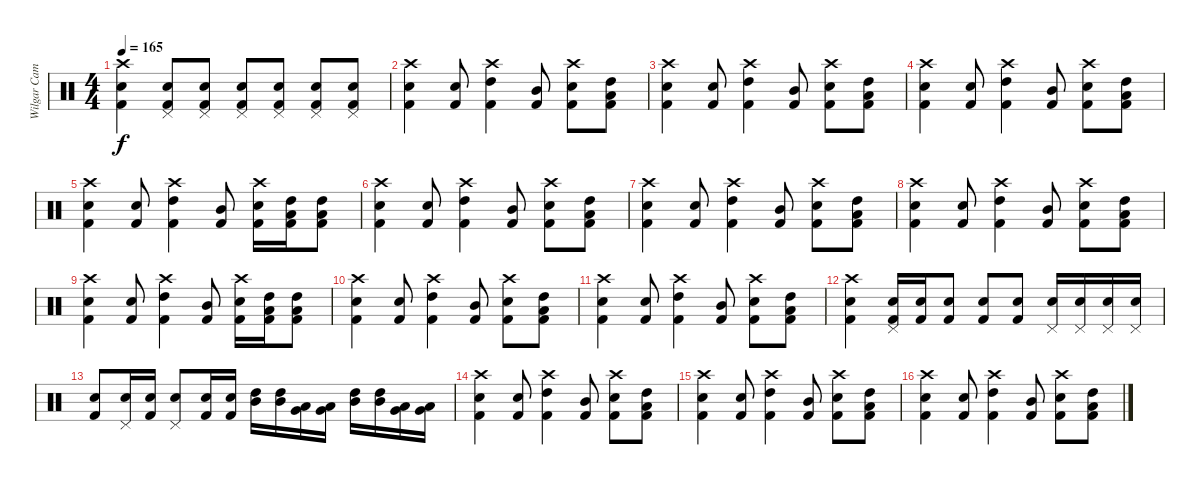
\track ("Wilgar Campbell" "Wilgar Cam") {instrument percussion}
\staff {score}
\articulation defaults
\ts (4 4)
\tempo 165
\clef neutral
\ks c
("Crash high (hit)" "Electric Snare (hit)" "Kick (hit) 2").4{dy f} ("Pedal Hi-Hat (hit)" "Snare (hit) 2" "Kick (hit) 2").8 ("Pedal Hi-Hat (hit)" "Snare (hit) 2" "Kick (hit) 2").8 ("Pedal Hi-Hat (hit)" "Snare (hit) 2" "Kick (hit) 2").8 ("Pedal Hi-Hat (hit)" "Snare (hit) 2" "Kick (hit) 2").8 ("Pedal Hi-Hat (hit)" "Snare (hit) 2" "Kick (hit) 2").8 ("Pedal Hi-Hat (hit)" "Snare (hit) 2" "Kick (hit) 2").8 |
("Crash high (hit)" "Electric Snare (hit)" "Kick (hit) 2").4 ("Snare (hit) 2" "Kick (hit) 2").8 ("Crash high (hit)" "High Tom (hit)" "Kick (hit) 2").4 ("Mid Tom (hit)" "Kick (hit) 2").8 ("Crash high (hit)" "Electric Snare (hit)" "Kick (hit) 2").8 ("High Tom (hit)" "Kick (hit) 2" "Low Tom (hit)").8 |
("Crash high (hit)" "Electric Snare (hit)" "Kick (hit) 2").4 ("Snare (hit) 2" "Kick (hit) 2").8 ("Crash high (hit)" "High Tom (hit)" "Kick (hit) 2").4 ("Mid Tom (hit)" "Kick (hit) 2").8 ("Crash high (hit)" "Electric Snare (hit)" "Kick (hit) 2").8 ("High Tom (hit)" "Kick (hit) 2" "Low Tom (hit)").8 |
("Crash high (hit)" "Electric Snare (hit)" "Kick (hit) 2").4 ("Snare (hit) 2" "Kick (hit) 2").8 ("Crash high (hit)" "High Tom (hit)" "Kick (hit) 2").4 ("Mid Tom (hit)" "Kick (hit) 2").8 ("Crash high (hit)" "Electric Snare (hit)" "Kick (hit) 2").8 ("High Tom (hit)" "Kick (hit) 2" "Low Tom (hit)").8 |
("Crash high (hit)" "Electric Snare (hit)" "Kick (hit) 2").4 ("Snare (hit) 2" "Kick (hit) 2").8 ("Crash high (hit)" "High Tom (hit)" "Kick (hit) 2").4 ("Mid Tom (hit)" "Kick (hit) 2").8 ("Crash high (hit)" "Electric Snare (hit)" "Kick (hit) 2").16 ("High Tom (hit)" "Kick (hit) 2" "Low Tom (hit)").16 ("High Tom (hit)" "Kick (hit) 2" "Low Tom (hit)").8 |
("Crash high (hit)" "Electric Snare (hit)" "Kick (hit) 2").4 ("Snare (hit) 2" "Kick (hit) 2").8 ("Crash high (hit)" "High Tom (hit)" "Kick (hit) 2").4 ("Mid Tom (hit)" "Kick (hit) 2").8 ("Crash high (hit)" "Electric Snare (hit)" "Kick (hit) 2").8 ("High Tom (hit)" "Kick (hit) 2" "Low Tom (hit)").8 |
("Crash high (hit)" "Electric Snare (hit)" "Kick (hit) 2").4 ("Snare (hit) 2" "Kick (hit) 2").8 ("Crash high (hit)" "High Tom (hit)" "Kick (hit) 2").4 ("Mid Tom (hit)" "Kick (hit) 2").8 ("Crash high (hit)" "Electric Snare (hit)" "Kick (hit) 2").8 ("High Tom (hit)" "Kick (hit) 2" "Low Tom (hit)").8 |
("Crash high (hit)" "Electric Snare (hit)" "Kick (hit) 2").4 ("Snare (hit) 2" "Kick (hit) 2").8 ("Crash high (hit)" "High Tom (hit)" "Kick (hit) 2").4 ("Mid Tom (hit)" "Kick (hit) 2").8 ("Crash high (hit)" "Electric Snare (hit)" "Kick (hit) 2").8 ("High Tom (hit)" "Kick (hit) 2" "Low Tom (hit)").8 |
("Crash high (hit)" "Electric Snare (hit)" "Kick (hit) 2").4 ("Snare (hit) 2" "Kick (hit) 2").8 ("Crash high (hit)" "High Tom (hit)" "Kick (hit) 2").4 ("Mid Tom (hit)" "Kick (hit) 2").8 ("Crash high (hit)" "Electric Snare (hit)" "Kick (hit) 2").16 ("High Tom (hit)" "Kick (hit) 2" "Low Tom (hit)").16 ("High Tom (hit)" "Kick (hit) 2" "Low Tom (hit)").8 |
("Crash high (hit)" "Electric Snare (hit)" "Kick (hit) 2").4 ("Snare (hit) 2" "Kick (hit) 2").8 ("Crash high (hit)" "High Tom (hit)" "Kick (hit) 2").4 ("Mid Tom (hit)" "Kick (hit) 2").8 ("Crash high (hit)" "Electric Snare (hit)" "Kick (hit) 2").8 ("High Tom (hit)" "Kick (hit) 2" "Low Tom (hit)").8 |
("Crash high (hit)" "Electric Snare (hit)" "Kick (hit) 2").4 ("Snare (hit) 2" "Kick (hit) 2").8 ("Crash high (hit)" "High Tom (hit)" "Kick (hit) 2").4 ("Mid Tom (hit)" "Kick (hit) 2").8 ("Crash high (hit)" "Electric Snare (hit)" "Kick (hit) 2").8 ("High Tom (hit)" "Kick (hit) 2" "Low Tom (hit)").8 |
("Crash high (hit)" "Kick (hit) 2" "Snare (hit) 2").4 ("Snare (hit) 2" "Kick (hit) 2" "Pedal Hi-Hat (hit)").16 ("Snare (hit) 2" "Kick (hit) 2").16 ("Kick (hit) 2" "Electric Snare (hit)").8 ("Kick (hit) 2" "Snare (hit) 2").8 ("Kick (hit) 2" "Snare (hit) 2").8 ("Snare (hit) 2" "Pedal Hi-Hat (hit)").16 ("Snare (hit) 2" "Pedal Hi-Hat (hit)").16 ("Snare (hit) 2" "Pedal Hi-Hat (hit)").16 ("Snare (hit) 2" "Pedal Hi-Hat (hit)").16 |
("Snare (hit) 2" "Kick (hit) 2").8 ("Snare (hit) 2" "Pedal Hi-Hat (hit)").16 ("Snare (hit) 2" "Kick (hit) 2").16 ("Snare (hit) 2" "Pedal Hi-Hat (hit)").8 ("Snare (hit) 2" "Kick (hit) 2").16{volume 12} ("Snare (hit) 2" "Kick (hit) 2").16 ("High Tom (hit)" "Mid Tom (hit)").16 ("High Tom (hit)" "Mid Tom (hit)").16{volume 11} ("Low Tom (hit)" "Very Low Tom (hit)").16 ("Low Tom (hit)" "Very Low Tom (hit)").16{volume 10} ("Mid Tom (hit)" "High Tom (hit)").16 ("Mid Tom (hit)" "High Tom (hit)").16 ("Very Low Tom (hit)" "Low Tom (hit)").16{volume 9} ("Very Low Tom (hit)" "Low Tom (hit)").16 |
("Crash high (hit)" "Electric Snare (hit)" "Kick (hit) 2").4 ("Snare (hit) 2" "Kick (hit) 2").8 ("Crash high (hit)" "High Tom (hit)" "Kick (hit) 2").4 ("Mid Tom (hit)" "Kick (hit) 2").8 ("Crash high (hit)" "Electric Snare (hit)" "Kick (hit) 2").8 ("High Tom (hit)" "Kick (hit) 2" "Low Tom (hit)").8 |
("Crash high (hit)" "Electric Snare (hit)" "Kick (hit) 2").4 ("Snare (hit) 2" "Kick (hit) 2").8 ("Crash high (hit)" "High Tom (hit)" "Kick (hit) 2").4 ("Mid Tom (hit)" "Kick (hit) 2").8 ("Crash high (hit)" "Electric Snare (hit)" "Kick (hit) 2").8 ("High Tom (hit)" "Kick (hit) 2" "Low Tom (hit)").8 |
("Crash high (hit)" "Electric Snare (hit)" "Kick (hit) 2").4 ("Snare (hit) 2" "Kick (hit) 2").8 ("Crash high (hit)" "High Tom (hit)" "Kick (hit) 2").4 ("Mid Tom (hit)" "Kick (hit) 2").8 ("Crash high (hit)" "Electric Snare (hit)" "Kick (hit) 2").8 ("High Tom (hit)" "Kick (hit) 2" "Low Tom (hit)").8
